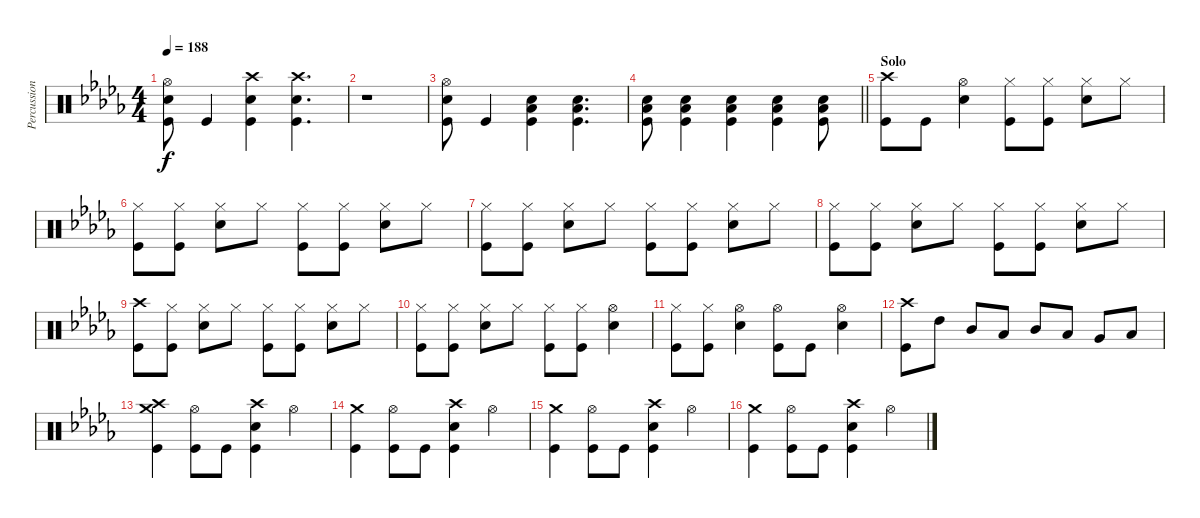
\track ("Percussion" "Percussion") {instrument percussion}
\staff {score}
\articulation defaults
\ts (4 4)
\tempo 188
\clef neutral
\ks db
("Hi-Hat (open)" "Electric Snare (hit)" "Kick (hit)").8{dy f} "Kick (hit)".4 ("Crash high (hit)" "Electric Snare (hit)" "Kick (hit)").4 ("Crash high (hit)" "Electric Snare (hit)" "Kick (hit)").4{d} |
r.1 |
("Hi-Hat (open)" "Electric Snare (hit)" "Kick (hit)").8 "Kick (hit)".4 ("Electric Snare (hit)" "Low Floor Tom (hit)" "Kick (hit)").4 ("Electric Snare (hit)" "Low Floor Tom (hit)" "Kick (hit)").4{d} |
\barLineRight lightlight
("Electric Snare (hit)" "Low Floor Tom (hit)" "Kick (hit)").8 ("Electric Snare (hit)" "Low Floor Tom (hit)" "Kick (hit)").4 ("Electric Snare (hit)" "Low Floor Tom (hit)" "Kick (hit)").4 ("Electric Snare (hit)" "Low Floor Tom (hit)" "Kick (hit)").4 ("Electric Snare (hit)" "Low Floor Tom (hit)" "Kick (hit)").8 |
\section ("" "Solo")
("Crash high (hit)" "Kick (hit)").8 "Kick (hit)".8 ("Hi-Hat (open)" "Electric Snare (hit)").4 ("Hi-Hat (closed)" "Kick (hit)").8 ("Hi-Hat (closed)" "Kick (hit)").8 ("Hi-Hat (closed)" "Electric Snare (hit)").8 "Hi-Hat (closed)".8 |
("Hi-Hat (closed)" "Kick (hit)").8 ("Hi-Hat (closed)" "Kick (hit)").8 ("Hi-Hat (closed)" "Electric Snare (hit)").8 "Hi-Hat (closed)".8 ("Hi-Hat (closed)" "Kick (hit)").8 ("Hi-Hat (closed)" "Kick (hit)").8 ("Hi-Hat (closed)" "Electric Snare (hit)").8 "Hi-Hat (closed)".8 |
("Hi-Hat (closed)" "Kick (hit)").8 ("Hi-Hat (closed)" "Kick (hit)").8 ("Hi-Hat (closed)" "Electric Snare (hit)").8 "Hi-Hat (closed)".8 ("Hi-Hat (closed)" "Kick (hit)").8 ("Hi-Hat (closed)" "Kick (hit)").8 ("Hi-Hat (closed)" "Electric Snare (hit)").8 "Hi-Hat (closed)".8 |
("Hi-Hat (closed)" "Kick (hit)").8 ("Hi-Hat (closed)" "Kick (hit)").8 ("Hi-Hat (closed)" "Electric Snare (hit)").8 "Hi-Hat (closed)".8 ("Hi-Hat (closed)" "Kick (hit)").8 ("Hi-Hat (closed)" "Kick (hit)").8 ("Hi-Hat (closed)" "Electric Snare (hit)").8 "Hi-Hat (closed)".8 |
("Crash high (hit)" "Kick (hit)").8 ("Hi-Hat (closed)" "Kick (hit)").8 ("Hi-Hat (closed)" "Electric Snare (hit)").8 "Hi-Hat (closed)".8 ("Hi-Hat (closed)" "Kick (hit)").8 ("Hi-Hat (closed)" "Kick (hit)").8 ("Hi-Hat (closed)" "Electric Snare (hit)").8 "Hi-Hat (closed)".8 |
("Hi-Hat (closed)" "Kick (hit)").8 ("Hi-Hat (closed)" "Kick (hit)").8 ("Hi-Hat (closed)" "Electric Snare (hit)").8 "Hi-Hat (closed)".8 ("Hi-Hat (closed)" "Kick (hit)").8 ("Hi-Hat (closed)" "Kick (hit)").8 ("Hi-Hat (open)" "Electric Snare (hit)").4 |
("Hi-Hat (closed)" "Kick (hit)").8 ("Hi-Hat (closed)" "Kick (hit)").8 ("Hi-Hat (open)" "Electric Snare (hit)").4 ("Hi-Hat (open)" "Kick (hit)").8 "Kick (hit)".8 ("Hi-Hat (open)" "Electric Snare (hit)").4 |
("Crash high (hit)" "Kick (hit)").8 "High Tom (hit)".8 "Mid Tom (hit)".8 "Low Tom (hit)".8 "Mid Tom (hit)".8 "Low Tom (hit)".8 "Very Low Tom (hit)".8 "Low Floor Tom (hit)".8 |
("Crash high (hit)" "Crash medium (hit)" "Kick (hit)").4 ("Hi-Hat (open)" "Kick (hit)").8 "Kick (hit)".8 ("Crash high (hit)" "Electric Snare (hit)" "Kick (hit)").4 "Hi-Hat (open)".4 |
("Crash medium (hit)" "Kick (hit)").4 ("Hi-Hat (open)" "Kick (hit)").8 "Kick (hit)".8 ("Crash high (hit)" "Electric Snare (hit)" "Kick (hit)").4 "Hi-Hat (open)".4 |
("Crash medium (hit)" "Kick (hit)").4 ("Hi-Hat (open)" "Kick (hit)").8 "Kick (hit)".8 ("Crash high (hit)" "Electric Snare (hit)" "Kick (hit)").4 "Hi-Hat (open)".4 |
("Crash medium (hit)" "Kick (hit)").4 ("Hi-Hat (open)" "Kick (hit)").8 "Kick (hit)".8 ("Crash high (hit)" "Electric Snare (hit)" "Kick (hit)").4 "Hi-Hat (open)".4
